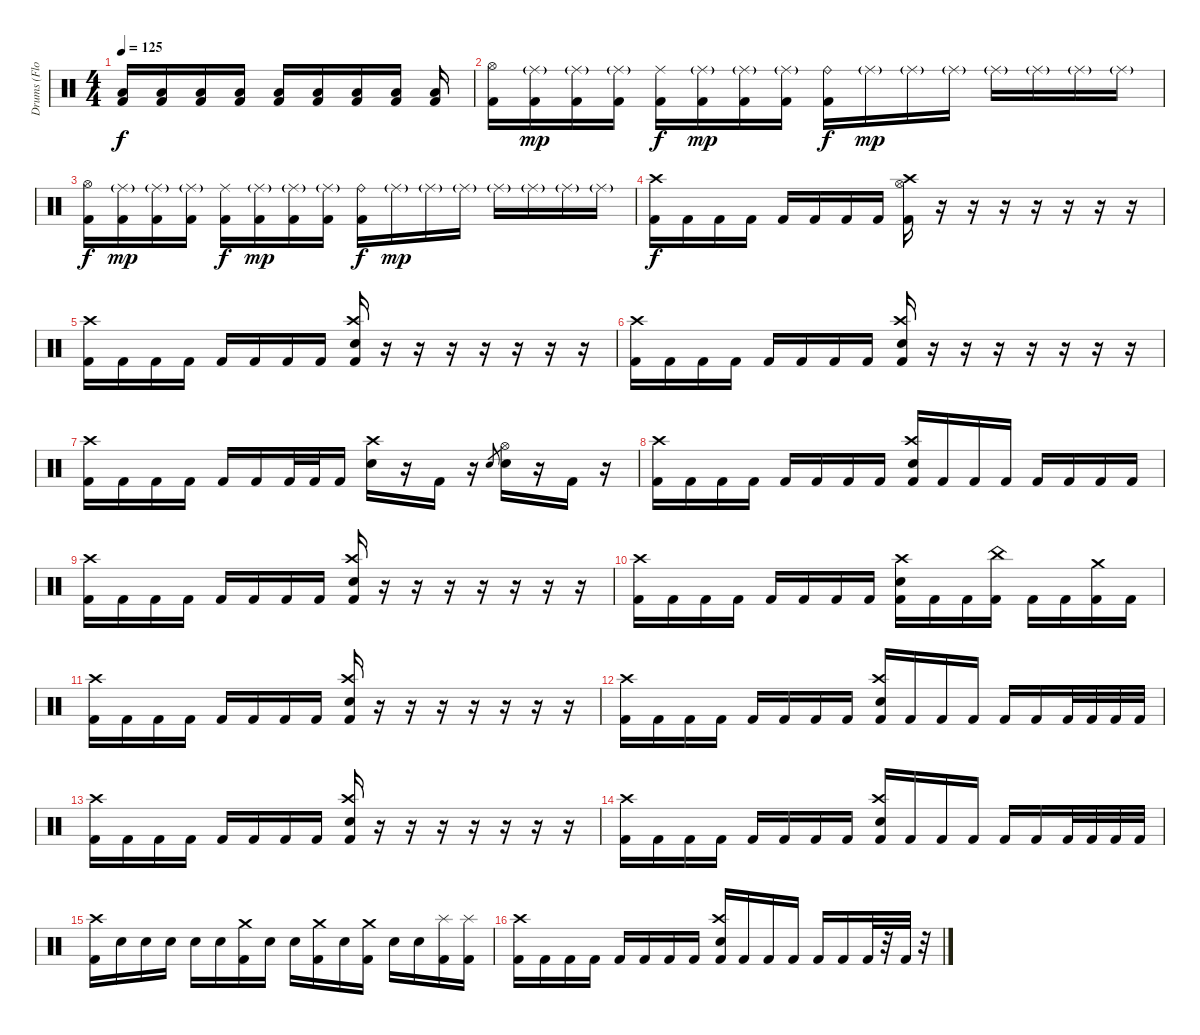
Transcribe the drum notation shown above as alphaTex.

\track ("Drums (Floboter)" "Drums (Flo") {instrument percussion}
\staff {score}
\articulation defaults
\ts (4 4)
\tempo 125
\clef neutral
\ks c
("Low Floor Tom (hit)" "Kick (hit) 2").16{dy f} ("Low Floor Tom (hit)" "Kick (hit) 2").16 ("Low Floor Tom (hit)" "Kick (hit) 2").16 ("Low Floor Tom (hit)" "Kick (hit) 2").16 ("Low Floor Tom (hit)" "Kick (hit) 2").16 ("Low Floor Tom (hit)" "Kick (hit) 2").16 ("Low Floor Tom (hit)" "Kick (hit) 2").16 ("Low Floor Tom (hit)" "Kick (hit) 2").16 ("Low Floor Tom (hit)" "Kick (hit) 2").16 |
("Hi-Hat (open)" "Kick (hit) 2").16 ("Ride (middle)"{g} "Kick (hit) 2").16{dy mp} ("Ride (middle)"{g} "Kick (hit) 2").16 ("Ride (middle)"{g} "Kick (hit) 2").16 ("Ride (middle)" "Kick (hit) 2").16{dy f} ("Ride (middle)"{g} "Kick (hit) 2").16{dy mp} ("Ride (middle)"{g} "Kick (hit) 2").16 ("Ride (middle)"{g} "Kick (hit) 2").16 ("Ride (bell)" "Kick (hit) 2").16{dy f} "Ride (middle)"{g}.16{dy mp} "Ride (middle)"{g}.16 "Ride (middle)"{g}.16 "Ride (middle)"{g}.16 "Ride (middle)"{g}.16 "Ride (middle)"{g}.16 "Ride (middle)"{g}.16 |
("Hi-Hat (open)" "Kick (hit) 2").16{dy f} ("Ride (middle)"{g} "Kick (hit) 2").16{dy mp} ("Ride (middle)"{g} "Kick (hit) 2").16 ("Ride (middle)"{g} "Kick (hit) 2").16 ("Ride (middle)" "Kick (hit) 2").16{dy f} ("Ride (middle)"{g} "Kick (hit) 2").16{dy mp} ("Ride (middle)"{g} "Kick (hit) 2").16 ("Ride (middle)"{g} "Kick (hit) 2").16 ("Ride (bell)" "Kick (hit) 2").16{dy f} "Ride (middle)"{g}.16{dy mp} "Ride (middle)"{g}.16 "Ride (middle)"{g}.16 "Ride (middle)"{g}.16 "Ride (middle)"{g}.16 "Ride (middle)"{g}.16 "Ride (middle)"{g}.16 |
("Crash high (hit)" "Kick (hit) 2").16{dy f} "Kick (hit) 2".16 "Kick (hit) 2".16 "Kick (hit) 2".16 "Kick (hit) 2".16 "Kick (hit) 2".16 "Kick (hit) 2".16 "Kick (hit) 2".16 ("Crash high (hit)" "Hi-Hat (open)" "Kick (hit) 2").16 r.16 r.16 r.16 r.16 r.16 r.16 r.16 |
("Crash high (hit)" "Kick (hit) 2").16 "Kick (hit) 2".16 "Kick (hit) 2".16 "Kick (hit) 2".16 "Kick (hit) 2".16 "Kick (hit) 2".16 "Kick (hit) 2".16 "Kick (hit) 2".16 ("Crash high (hit)" "Snare (hit) 2" "Kick (hit) 2").16 r.16 r.16 r.16 r.16 r.16 r.16 r.16 |
("Crash high (hit)" "Kick (hit) 2").16 "Kick (hit) 2".16 "Kick (hit) 2".16 "Kick (hit) 2".16 "Kick (hit) 2".16 "Kick (hit) 2".16 "Kick (hit) 2".16 "Kick (hit) 2".16 ("Crash high (hit)" "Snare (hit) 2" "Kick (hit) 2").16 r.16 r.16 r.16 r.16 r.16 r.16 r.16 |
("Crash high (hit)" "Kick (hit) 2").16 "Kick (hit) 2".16 "Kick (hit) 2".16 "Kick (hit) 2".16 "Kick (hit) 2".16 "Kick (hit) 2".16 "Kick (hit) 2".32 "Kick (hit) 2".32 "Kick (hit) 2".16 ("Crash high (hit)" "Snare (hit) 2").16 r.16 "Kick (hit) 2".16 r.16 "Snare (hit) 2".8{gr} ("Hi-Hat (open)" "Snare (hit) 2").16 r.16 "Kick (hit) 2".16 r.16 |
("Crash high (hit)" "Kick (hit) 2").16 "Kick (hit) 2".16 "Kick (hit) 2".16 "Kick (hit) 2".16 "Kick (hit) 2".16 "Kick (hit) 2".16 "Kick (hit) 2".16 "Kick (hit) 2".16 ("Crash high (hit)" "Snare (hit) 2" "Kick (hit) 2").16 "Kick (hit) 2".16 "Kick (hit) 2".16 "Kick (hit) 2".16 "Kick (hit) 2".16 "Kick (hit) 2".16 "Kick (hit) 2".16 "Kick (hit) 2".16 |
("Crash high (hit)" "Kick (hit) 2").16 "Kick (hit) 2".16 "Kick (hit) 2".16 "Kick (hit) 2".16 "Kick (hit) 2".16 "Kick (hit) 2".16 "Kick (hit) 2".16 "Kick (hit) 2".16 ("Crash high (hit)" "Snare (hit) 2" "Kick (hit) 2").16 r.16 r.16 r.16 r.16 r.16 r.16 r.16 |
("Crash high (hit)" "Kick (hit) 2").16 "Kick (hit) 2".16 "Kick (hit) 2".16 "Kick (hit) 2".16 "Kick (hit) 2".16 "Kick (hit) 2".16 "Kick (hit) 2".16 "Kick (hit) 2".16 ("Crash high (hit)" "Snare (hit) 2" "Kick (hit) 2").16 "Kick (hit) 2".16 "Kick (hit) 2".16 ("China (hit)" "Kick (hit) 2").16 "Kick (hit) 2".16 "Kick (hit) 2".16 ("Crash medium (hit)" "Kick (hit) 2").16 "Kick (hit) 2".16 |
("Crash high (hit)" "Kick (hit) 2").16 "Kick (hit) 2".16 "Kick (hit) 2".16 "Kick (hit) 2".16 "Kick (hit) 2".16 "Kick (hit) 2".16 "Kick (hit) 2".16 "Kick (hit) 2".16 ("Crash high (hit)" "Snare (hit) 2" "Kick (hit) 2").16 r.16 r.16 r.16 r.16 r.16 r.16 r.16 |
("Crash high (hit)" "Kick (hit) 2").16 "Kick (hit) 2".16 "Kick (hit) 2".16 "Kick (hit) 2".16 "Kick (hit) 2".16 "Kick (hit) 2".16 "Kick (hit) 2".16 "Kick (hit) 2".16 ("Crash high (hit)" "Snare (hit) 2" "Kick (hit) 2").16 "Kick (hit) 2".16 "Kick (hit) 2".16 "Kick (hit) 2".16 "Kick (hit) 2".16 "Kick (hit) 2".16 "Kick (hit) 2".32 "Kick (hit) 2".32 "Kick (hit) 2".32 "Kick (hit) 2".32 |
("Crash high (hit)" "Kick (hit) 2").16 "Kick (hit) 2".16 "Kick (hit) 2".16 "Kick (hit) 2".16 "Kick (hit) 2".16 "Kick (hit) 2".16 "Kick (hit) 2".16 "Kick (hit) 2".16 ("Crash high (hit)" "Snare (hit) 2" "Kick (hit) 2").16 r.16 r.16 r.16 r.16 r.16 r.16 r.16 |
("Crash high (hit)" "Kick (hit) 2").16 "Kick (hit) 2".16 "Kick (hit) 2".16 "Kick (hit) 2".16 "Kick (hit) 2".16 "Kick (hit) 2".16 "Kick (hit) 2".16 "Kick (hit) 2".16 ("Crash high (hit)" "Snare (hit) 2" "Kick (hit) 2").16 "Kick (hit) 2".16 "Kick (hit) 2".16 "Kick (hit) 2".16 "Kick (hit) 2".16 "Kick (hit) 2".16 "Kick (hit) 2".32 "Kick (hit) 2".32 "Kick (hit) 2".32 "Kick (hit) 2".32 |
("Crash high (hit)" "Kick (hit) 2").16 "Snare (hit) 2".16 "Snare (hit) 2".16 "Snare (hit) 2".16 "Snare (hit) 2".16 "Snare (hit) 2".16 ("Crash medium (hit)" "Kick (hit) 2").16 "Snare (hit) 2".16 "Snare (hit) 2".16 ("Crash medium (hit)" "Kick (hit) 2").16 "Snare (hit) 2".16 ("Crash medium (hit)" "Kick (hit) 2").16 "Snare (hit) 2".16 "Snare (hit) 2".16 ("Splash (hit)" "Kick (hit) 2").16 ("Splash (hit)" "Kick (hit) 2").16 |
("Crash high (hit)" "Kick (hit) 2").16 "Kick (hit) 2".16 "Kick (hit) 2".16 "Kick (hit) 2".16 "Kick (hit) 2".16 "Kick (hit) 2".16 "Kick (hit) 2".16 "Kick (hit) 2".16 ("Crash high (hit)" "Snare (hit) 2" "Kick (hit) 2").16 "Kick (hit) 2".16 "Kick (hit) 2".16 "Kick (hit) 2".16 "Kick (hit) 2".16 "Kick (hit) 2".16 "Kick (hit) 2".32 r.32 "Kick (hit) 2".32 r.32
